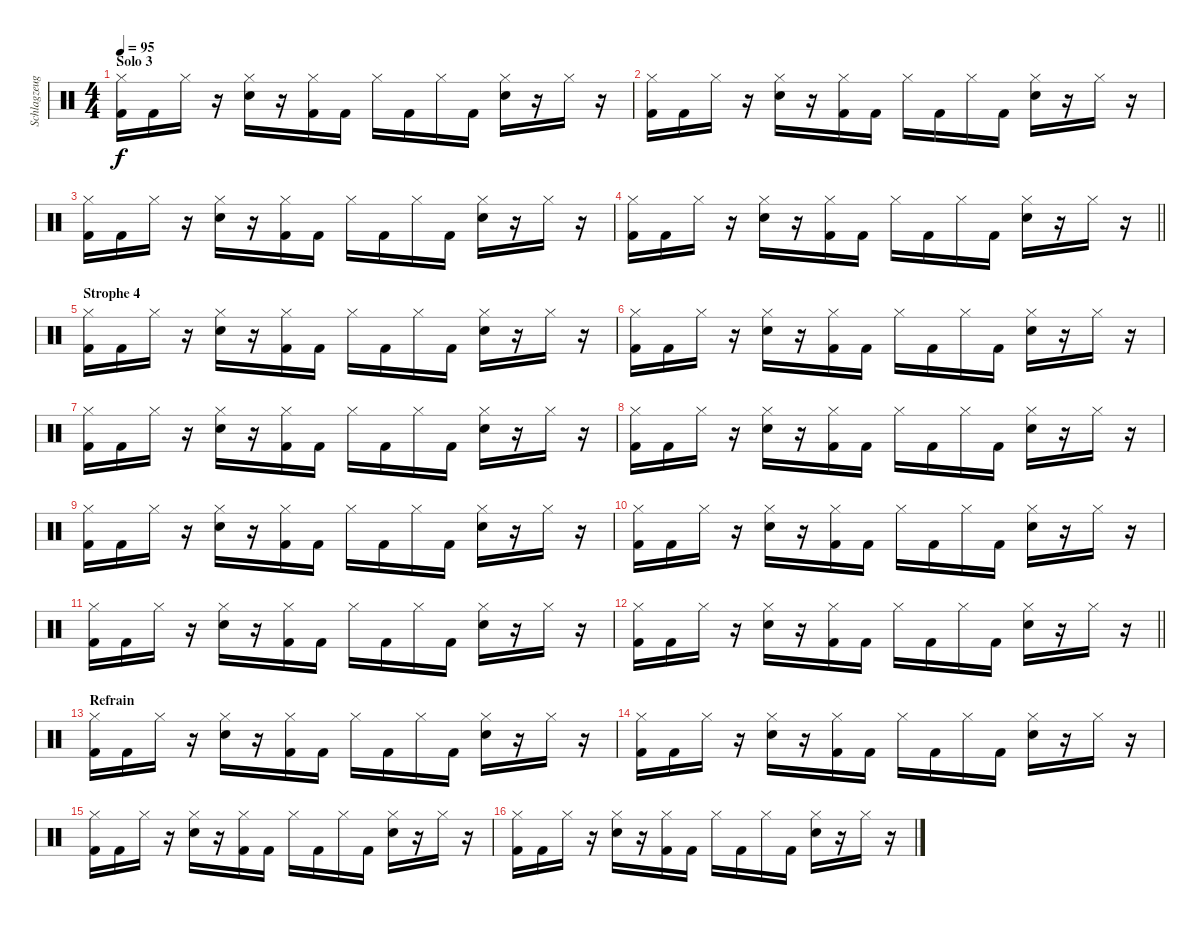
\track ("Schlagzeug" "Schlagzeug") {instrument percussion}
\staff {score}
\articulation defaults
\ts (4 4)
\section ("" "Solo 3")
\tempo 95
\clef neutral
\ks c
("Hi-Hat (closed)" "Kick (hit) 2").16{dy f} "Kick (hit) 2".16 "Hi-Hat (closed)".16 r.16 ("Hi-Hat (closed)" "Snare (hit) 2").16 r.16 ("Hi-Hat (closed)" "Kick (hit) 2").16 "Kick (hit) 2".16 "Hi-Hat (closed)".16 "Kick (hit) 2".16 "Hi-Hat (closed)".16 "Kick (hit) 2".16 ("Hi-Hat (closed)" "Snare (hit) 2").16 r.16 "Hi-Hat (closed)".16 r.16 |
("Hi-Hat (closed)" "Kick (hit) 2").16 "Kick (hit) 2".16 "Hi-Hat (closed)".16 r.16 ("Hi-Hat (closed)" "Snare (hit) 2").16 r.16 ("Hi-Hat (closed)" "Kick (hit) 2").16 "Kick (hit) 2".16 "Hi-Hat (closed)".16 "Kick (hit) 2".16 "Hi-Hat (closed)".16 "Kick (hit) 2".16 ("Hi-Hat (closed)" "Snare (hit) 2").16 r.16 "Hi-Hat (closed)".16 r.16 |
("Hi-Hat (closed)" "Kick (hit) 2").16 "Kick (hit) 2".16 "Hi-Hat (closed)".16 r.16 ("Hi-Hat (closed)" "Snare (hit) 2").16 r.16 ("Hi-Hat (closed)" "Kick (hit) 2").16 "Kick (hit) 2".16 "Hi-Hat (closed)".16 "Kick (hit) 2".16 "Hi-Hat (closed)".16 "Kick (hit) 2".16 ("Hi-Hat (closed)" "Snare (hit) 2").16 r.16 "Hi-Hat (closed)".16 r.16 |
\barLineRight lightlight
("Hi-Hat (closed)" "Kick (hit) 2").16 "Kick (hit) 2".16 "Hi-Hat (closed)".16 r.16 ("Hi-Hat (closed)" "Snare (hit) 2").16 r.16 ("Hi-Hat (closed)" "Kick (hit) 2").16 "Kick (hit) 2".16 "Hi-Hat (closed)".16 "Kick (hit) 2".16 "Hi-Hat (closed)".16 "Kick (hit) 2".16 ("Hi-Hat (closed)" "Snare (hit) 2").16 r.16 "Hi-Hat (closed)".16 r.16 |
\section ("" "Strophe 4")
("Hi-Hat (closed)" "Kick (hit) 2").16 "Kick (hit) 2".16 "Hi-Hat (closed)".16 r.16 ("Hi-Hat (closed)" "Snare (hit) 2").16 r.16 ("Hi-Hat (closed)" "Kick (hit) 2").16 "Kick (hit) 2".16 "Hi-Hat (closed)".16 "Kick (hit) 2".16 "Hi-Hat (closed)".16 "Kick (hit) 2".16 ("Hi-Hat (closed)" "Snare (hit) 2").16 r.16 "Hi-Hat (closed)".16 r.16 |
("Hi-Hat (closed)" "Kick (hit) 2").16 "Kick (hit) 2".16 "Hi-Hat (closed)".16 r.16 ("Hi-Hat (closed)" "Snare (hit) 2").16 r.16 ("Hi-Hat (closed)" "Kick (hit) 2").16 "Kick (hit) 2".16 "Hi-Hat (closed)".16 "Kick (hit) 2".16 "Hi-Hat (closed)".16 "Kick (hit) 2".16 ("Hi-Hat (closed)" "Snare (hit) 2").16 r.16 "Hi-Hat (closed)".16 r.16 |
("Hi-Hat (closed)" "Kick (hit) 2").16 "Kick (hit) 2".16 "Hi-Hat (closed)".16 r.16 ("Hi-Hat (closed)" "Snare (hit) 2").16 r.16 ("Hi-Hat (closed)" "Kick (hit) 2").16 "Kick (hit) 2".16 "Hi-Hat (closed)".16 "Kick (hit) 2".16 "Hi-Hat (closed)".16 "Kick (hit) 2".16 ("Hi-Hat (closed)" "Snare (hit) 2").16 r.16 "Hi-Hat (closed)".16 r.16 |
("Hi-Hat (closed)" "Kick (hit) 2").16 "Kick (hit) 2".16 "Hi-Hat (closed)".16 r.16 ("Hi-Hat (closed)" "Snare (hit) 2").16 r.16 ("Hi-Hat (closed)" "Kick (hit) 2").16 "Kick (hit) 2".16 "Hi-Hat (closed)".16 "Kick (hit) 2".16 "Hi-Hat (closed)".16 "Kick (hit) 2".16 ("Hi-Hat (closed)" "Snare (hit) 2").16 r.16 "Hi-Hat (closed)".16 r.16 |
("Hi-Hat (closed)" "Kick (hit) 2").16 "Kick (hit) 2".16 "Hi-Hat (closed)".16 r.16 ("Hi-Hat (closed)" "Snare (hit) 2").16 r.16 ("Hi-Hat (closed)" "Kick (hit) 2").16 "Kick (hit) 2".16 "Hi-Hat (closed)".16 "Kick (hit) 2".16 "Hi-Hat (closed)".16 "Kick (hit) 2".16 ("Hi-Hat (closed)" "Snare (hit) 2").16 r.16 "Hi-Hat (closed)".16 r.16 |
("Hi-Hat (closed)" "Kick (hit) 2").16 "Kick (hit) 2".16 "Hi-Hat (closed)".16 r.16 ("Hi-Hat (closed)" "Snare (hit) 2").16 r.16 ("Hi-Hat (closed)" "Kick (hit) 2").16 "Kick (hit) 2".16 "Hi-Hat (closed)".16 "Kick (hit) 2".16 "Hi-Hat (closed)".16 "Kick (hit) 2".16 ("Hi-Hat (closed)" "Snare (hit) 2").16 r.16 "Hi-Hat (closed)".16 r.16 |
("Hi-Hat (closed)" "Kick (hit) 2").16 "Kick (hit) 2".16 "Hi-Hat (closed)".16 r.16 ("Hi-Hat (closed)" "Snare (hit) 2").16 r.16 ("Hi-Hat (closed)" "Kick (hit) 2").16 "Kick (hit) 2".16 "Hi-Hat (closed)".16 "Kick (hit) 2".16 "Hi-Hat (closed)".16 "Kick (hit) 2".16 ("Hi-Hat (closed)" "Snare (hit) 2").16 r.16 "Hi-Hat (closed)".16 r.16 |
\barLineRight lightlight
("Hi-Hat (closed)" "Kick (hit) 2").16 "Kick (hit) 2".16 "Hi-Hat (closed)".16 r.16 ("Hi-Hat (closed)" "Snare (hit) 2").16 r.16 ("Hi-Hat (closed)" "Kick (hit) 2").16 "Kick (hit) 2".16 "Hi-Hat (closed)".16 "Kick (hit) 2".16 "Hi-Hat (closed)".16 "Kick (hit) 2".16 ("Hi-Hat (closed)" "Snare (hit) 2").16 r.16 "Hi-Hat (closed)".16 r.16 |
\section ("" "Refrain")
("Hi-Hat (closed)" "Kick (hit) 2").16 "Kick (hit) 2".16 "Hi-Hat (closed)".16 r.16 ("Hi-Hat (closed)" "Snare (hit) 2").16 r.16 ("Hi-Hat (closed)" "Kick (hit) 2").16 "Kick (hit) 2".16 "Hi-Hat (closed)".16 "Kick (hit) 2".16 "Hi-Hat (closed)".16 "Kick (hit) 2".16 ("Hi-Hat (closed)" "Snare (hit) 2").16 r.16 "Hi-Hat (closed)".16 r.16 |
("Hi-Hat (closed)" "Kick (hit) 2").16 "Kick (hit) 2".16 "Hi-Hat (closed)".16 r.16 ("Hi-Hat (closed)" "Snare (hit) 2").16 r.16 ("Hi-Hat (closed)" "Kick (hit) 2").16 "Kick (hit) 2".16 "Hi-Hat (closed)".16 "Kick (hit) 2".16 "Hi-Hat (closed)".16 "Kick (hit) 2".16 ("Hi-Hat (closed)" "Snare (hit) 2").16 r.16 "Hi-Hat (closed)".16 r.16 |
("Hi-Hat (closed)" "Kick (hit) 2").16 "Kick (hit) 2".16 "Hi-Hat (closed)".16 r.16 ("Hi-Hat (closed)" "Snare (hit) 2").16 r.16 ("Hi-Hat (closed)" "Kick (hit) 2").16 "Kick (hit) 2".16 "Hi-Hat (closed)".16 "Kick (hit) 2".16 "Hi-Hat (closed)".16 "Kick (hit) 2".16 ("Hi-Hat (closed)" "Snare (hit) 2").16 r.16 "Hi-Hat (closed)".16 r.16 |
("Hi-Hat (closed)" "Kick (hit) 2").16 "Kick (hit) 2".16 "Hi-Hat (closed)".16 r.16 ("Hi-Hat (closed)" "Snare (hit) 2").16 r.16 ("Hi-Hat (closed)" "Kick (hit) 2").16 "Kick (hit) 2".16 "Hi-Hat (closed)".16 "Kick (hit) 2".16 "Hi-Hat (closed)".16 "Kick (hit) 2".16 ("Hi-Hat (closed)" "Snare (hit) 2").16 r.16 "Hi-Hat (closed)".16 r.16
